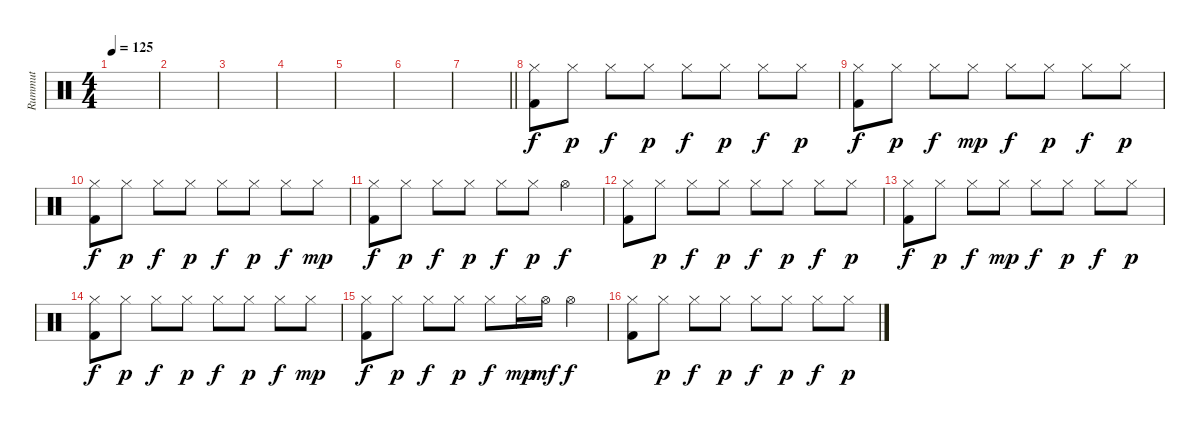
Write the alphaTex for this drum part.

\track ("Rummut" "Rummut") {instrument percussion}
\staff {score}
\articulation defaults
\ts (4 4)
\tempo 125
\clef neutral
\ks c
|
|
|
|
|
|
\barLineRight lightlight
|
\section ("" "")
("Hi-Hat (closed)" "Kick (hit) 2").8{volume 13 balance 8} "Hi-Hat (closed)".8{dy p} "Hi-Hat (closed)".8{dy f} "Hi-Hat (closed)".8{dy p} "Hi-Hat (closed)".8{dy f} "Hi-Hat (closed)".8{dy p} "Hi-Hat (closed)".8{dy f} "Hi-Hat (closed)".8{dy p} |
("Hi-Hat (closed)" "Kick (hit) 2").8{dy f} "Hi-Hat (closed)".8{dy p} "Hi-Hat (closed)".8{dy f} "Hi-Hat (closed)".8{dy mp} "Hi-Hat (closed)".8{dy f} "Hi-Hat (closed)".8{dy p} "Hi-Hat (closed)".8{dy f} "Hi-Hat (closed)".8{dy p} |
("Hi-Hat (closed)" "Kick (hit) 2").8{dy f} "Hi-Hat (closed)".8{dy p} "Hi-Hat (closed)".8{dy f} "Hi-Hat (closed)".8{dy p} "Hi-Hat (closed)".8{dy f} "Hi-Hat (closed)".8{dy p} "Hi-Hat (closed)".8{dy f} "Hi-Hat (closed)".8{dy mp} |
("Hi-Hat (closed)" "Kick (hit) 2").8{dy f} "Hi-Hat (closed)".8{dy p} "Hi-Hat (closed)".8{dy f} "Hi-Hat (closed)".8{dy p} "Hi-Hat (closed)".8{dy f} "Hi-Hat (closed)".8{dy p} "Hi-Hat (open)".4{dy f} |
("Hi-Hat (closed)" "Kick (hit) 2").8 "Hi-Hat (closed)".8{dy p} "Hi-Hat (closed)".8{dy f} "Hi-Hat (closed)".8{dy p} "Hi-Hat (closed)".8{dy f} "Hi-Hat (closed)".8{dy p} "Hi-Hat (closed)".8{dy f} "Hi-Hat (closed)".8{dy p} |
("Hi-Hat (closed)" "Kick (hit) 2").8{dy f} "Hi-Hat (closed)".8{dy p} "Hi-Hat (closed)".8{dy f} "Hi-Hat (closed)".8{dy mp} "Hi-Hat (closed)".8{dy f} "Hi-Hat (closed)".8{dy p} "Hi-Hat (closed)".8{dy f} "Hi-Hat (closed)".8{dy p} |
("Hi-Hat (closed)" "Kick (hit) 2").8{dy f} "Hi-Hat (closed)".8{dy p} "Hi-Hat (closed)".8{dy f} "Hi-Hat (closed)".8{dy p} "Hi-Hat (closed)".8{dy f} "Hi-Hat (closed)".8{dy p} "Hi-Hat (closed)".8{dy f} "Hi-Hat (closed)".8{dy mp} |
("Hi-Hat (closed)" "Kick (hit) 2").8{dy f} "Hi-Hat (closed)".8{dy p} "Hi-Hat (closed)".8{dy f} "Hi-Hat (closed)".8{dy p} "Hi-Hat (closed)".8{dy f} "Hi-Hat (closed)".16{dy mp} "Hi-Hat (open)".16{dy mf} "Hi-Hat (open)".4{dy f} |
("Hi-Hat (closed)" "Kick (hit) 2").8 "Hi-Hat (closed)".8{dy p} "Hi-Hat (closed)".8{dy f} "Hi-Hat (closed)".8{dy p} "Hi-Hat (closed)".8{dy f} "Hi-Hat (closed)".8{dy p} "Hi-Hat (closed)".8{dy f} "Hi-Hat (closed)".8{dy p}
